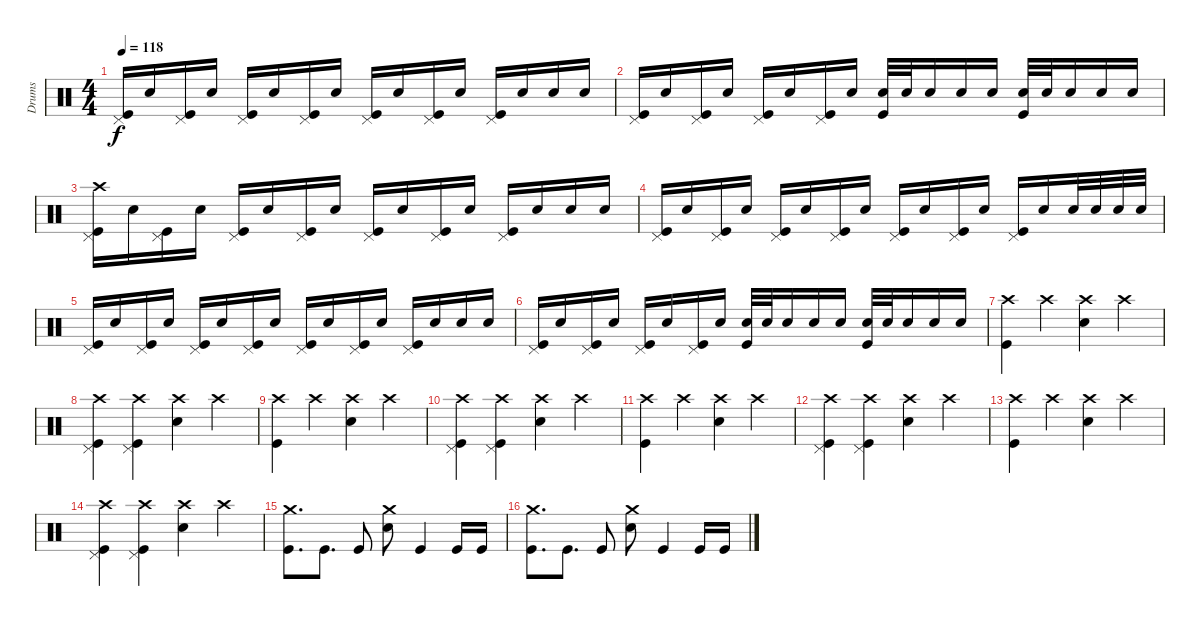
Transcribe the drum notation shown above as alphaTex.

\track ("Drums" "Drums") {instrument percussion}
\staff {score}
\articulation defaults
\ts (4 4)
\tempo 118
\clef neutral
\ks c
("Pedal Hi-Hat (hit)" "Kick (hit)").16{dy f} "Snare (hit) 2".16 ("Pedal Hi-Hat (hit)" "Kick (hit)").16 "Snare (hit) 2".16 ("Pedal Hi-Hat (hit)" "Kick (hit)").16 "Snare (hit) 2".16 ("Pedal Hi-Hat (hit)" "Kick (hit)").16 "Snare (hit) 2".16 ("Pedal Hi-Hat (hit)" "Kick (hit)").16 "Snare (hit) 2".16 ("Pedal Hi-Hat (hit)" "Kick (hit)").16 "Snare (hit) 2".16 ("Pedal Hi-Hat (hit)" "Kick (hit)").16 "Snare (hit) 2".16 "Snare (hit) 2".16 "Snare (hit) 2".16 |
("Pedal Hi-Hat (hit)" "Kick (hit)").16 "Snare (hit) 2".16 ("Pedal Hi-Hat (hit)" "Kick (hit)").16 "Snare (hit) 2".16 ("Pedal Hi-Hat (hit)" "Kick (hit)").16 "Snare (hit) 2".16 ("Pedal Hi-Hat (hit)" "Kick (hit)").16 "Snare (hit) 2".16 ("Snare (hit) 2" "Kick (hit)").32 "Snare (hit) 2".32 "Snare (hit) 2".16 "Snare (hit) 2".16 "Snare (hit) 2".16 ("Snare (hit) 2" "Kick (hit)").32 "Snare (hit) 2".32 "Snare (hit) 2".16 "Snare (hit) 2".16 "Snare (hit) 2".16 |
("Crash high (hit)" "Pedal Hi-Hat (hit)" "Kick (hit)").16 "Snare (hit) 2".16 ("Pedal Hi-Hat (hit)" "Kick (hit)").16 "Snare (hit) 2".16 ("Pedal Hi-Hat (hit)" "Kick (hit)").16 "Snare (hit) 2".16 ("Pedal Hi-Hat (hit)" "Kick (hit)").16 "Snare (hit) 2".16 ("Pedal Hi-Hat (hit)" "Kick (hit)").16 "Snare (hit) 2".16 ("Pedal Hi-Hat (hit)" "Kick (hit)").16 "Snare (hit) 2".16 ("Pedal Hi-Hat (hit)" "Kick (hit)").16 "Snare (hit) 2".16 "Snare (hit) 2".16 "Snare (hit) 2".16 |
("Pedal Hi-Hat (hit)" "Kick (hit)").16 "Snare (hit) 2".16 ("Pedal Hi-Hat (hit)" "Kick (hit)").16 "Snare (hit) 2".16 ("Pedal Hi-Hat (hit)" "Kick (hit)").16 "Snare (hit) 2".16 ("Pedal Hi-Hat (hit)" "Kick (hit)").16 "Snare (hit) 2".16 ("Pedal Hi-Hat (hit)" "Kick (hit)").16 "Snare (hit) 2".16 ("Pedal Hi-Hat (hit)" "Kick (hit)").16 "Snare (hit) 2".16 ("Pedal Hi-Hat (hit)" "Kick (hit)").16 "Snare (hit) 2".16 "Snare (hit) 2".32 "Snare (hit) 2".32 "Snare (hit) 2".32 "Snare (hit) 2".32 |
("Pedal Hi-Hat (hit)" "Kick (hit)").16 "Snare (hit) 2".16 ("Pedal Hi-Hat (hit)" "Kick (hit)").16 "Snare (hit) 2".16 ("Pedal Hi-Hat (hit)" "Kick (hit)").16 "Snare (hit) 2".16 ("Pedal Hi-Hat (hit)" "Kick (hit)").16 "Snare (hit) 2".16 ("Pedal Hi-Hat (hit)" "Kick (hit)").16 "Snare (hit) 2".16 ("Pedal Hi-Hat (hit)" "Kick (hit)").16 "Snare (hit) 2".16 ("Pedal Hi-Hat (hit)" "Kick (hit)").16 "Snare (hit) 2".16 "Snare (hit) 2".16 "Snare (hit) 2".16 |
("Pedal Hi-Hat (hit)" "Kick (hit)").16 "Snare (hit) 2".16 ("Pedal Hi-Hat (hit)" "Kick (hit)").16 "Snare (hit) 2".16 ("Pedal Hi-Hat (hit)" "Kick (hit)").16 "Snare (hit) 2".16 ("Pedal Hi-Hat (hit)" "Kick (hit)").16 "Snare (hit) 2".16 ("Snare (hit) 2" "Kick (hit)").32 "Snare (hit) 2".32 "Snare (hit) 2".16 "Snare (hit) 2".16 "Snare (hit) 2".16 ("Snare (hit) 2" "Kick (hit)").32 "Snare (hit) 2".32 "Snare (hit) 2".16 "Snare (hit) 2".16 "Snare (hit) 2".16 |
("Crash high (hit)" "Kick (hit)").4 "Crash high (hit)".4 ("Crash high (hit)" "Snare (hit) 2").4 "Crash high (hit)".4 |
("Crash high (hit)" "Pedal Hi-Hat (hit)" "Kick (hit)").4 ("Crash high (hit)" "Pedal Hi-Hat (hit)" "Kick (hit)").4 ("Crash high (hit)" "Snare (hit) 2").4 "Crash high (hit)".4 |
("Crash high (hit)" "Kick (hit)").4 "Crash high (hit)".4 ("Crash high (hit)" "Snare (hit) 2").4 "Crash high (hit)".4 |
("Crash high (hit)" "Pedal Hi-Hat (hit)" "Kick (hit)").4 ("Crash high (hit)" "Pedal Hi-Hat (hit)" "Kick (hit)").4 ("Crash high (hit)" "Snare (hit) 2").4 "Crash high (hit)".4 |
("Crash high (hit)" "Kick (hit)").4 "Crash high (hit)".4 ("Crash high (hit)" "Snare (hit) 2").4 "Crash high (hit)".4 |
("Crash high (hit)" "Pedal Hi-Hat (hit)" "Kick (hit)").4 ("Crash high (hit)" "Pedal Hi-Hat (hit)" "Kick (hit)").4 ("Crash high (hit)" "Snare (hit) 2").4 "Crash high (hit)".4 |
("Crash high (hit)" "Kick (hit)").4 "Crash high (hit)".4 ("Crash high (hit)" "Snare (hit) 2").4 "Crash high (hit)".4 |
("Crash high (hit)" "Pedal Hi-Hat (hit)" "Kick (hit)").4 ("Crash high (hit)" "Pedal Hi-Hat (hit)" "Kick (hit)").4 ("Crash high (hit)" "Snare (hit) 2").4 "Crash high (hit)".4 |
("Crash medium (hit)" "Kick (hit)").8{d} "Kick (hit)".8{d} "Kick (hit)".8 ("Crash medium (hit)" "Snare (hit) 2").8 "Kick (hit)".4 "Kick (hit)".16 "Kick (hit)".16 |
("Crash medium (hit)" "Kick (hit)").8{d} "Kick (hit)".8{d} "Kick (hit)".8 ("Crash medium (hit)" "Snare (hit) 2").8 "Kick (hit)".4 "Kick (hit)".16 "Kick (hit)".16
